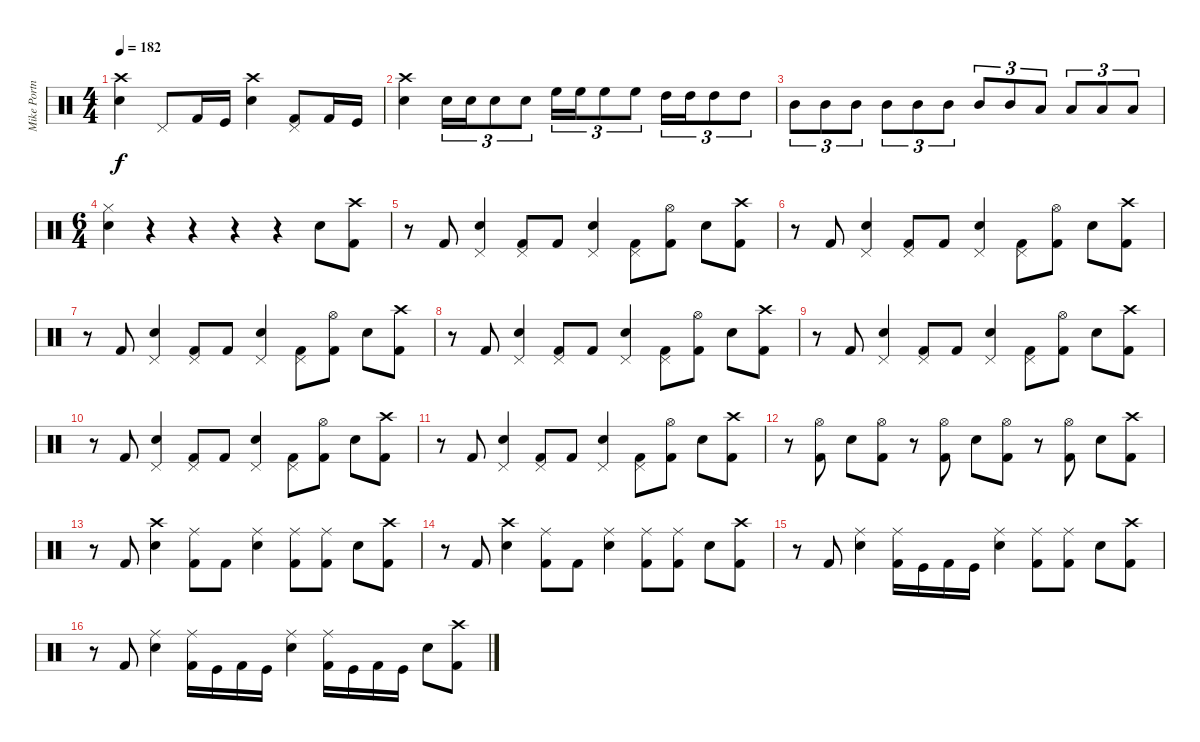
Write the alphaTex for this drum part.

\track ("Mike Portnoy" "Mike Portn") {instrument percussion}
\staff {score}
\articulation defaults
\ts (4 4)
\tempo 182
\clef neutral
\ks c
("Crash high (hit)" "Electric Snare (hit)").4{dy f} "Pedal Hi-Hat (hit)".8 "Kick (hit) 2".16 "Kick (hit)".16 ("Crash high (hit)" "Electric Snare (hit)").4 ("Pedal Hi-Hat (hit)" "Kick (hit) 2").8 "Kick (hit) 2".16 "Kick (hit)".16 |
("Crash high (hit)" "Electric Snare (hit)").4 "Electric Snare (hit)".16{tu (3 2)} "Electric Snare (hit)".16{tu (3 2)} "Electric Snare (hit)".8{tu (3 2)} "Electric Snare (hit)".8{tu (3 2)} "High Floor Tom (hit)".16{tu (3 2)} "High Floor Tom (hit)".16{tu (3 2)} "High Floor Tom (hit)".8{tu (3 2)} "High Floor Tom (hit)".8{tu (3 2)} "High Tom (hit)".16{tu (3 2)} "High Tom (hit)".16{tu (3 2)} "High Tom (hit)".8{tu (3 2)} "High Tom (hit)".8{tu (3 2)} |
"Mid Tom (hit)".8{tu (3 2)} "Mid Tom (hit)".8{tu (3 2)} "Mid Tom (hit)".8{tu (3 2)} "Mid Tom (hit)".8{tu (3 2)} "Mid Tom (hit)".8{tu (3 2)} "Mid Tom (hit)".8{tu (3 2)} "Mid Tom (hit)".8{tu (3 2)} "Mid Tom (hit)".8{tu (3 2)} "Low Floor Tom (hit)".8{tu (3 2)} "Low Floor Tom (hit)".8{tu (3 2)} "Low Floor Tom (hit)".8{tu (3 2)} "Low Floor Tom (hit)".8{tu (3 2)} |
\ts (6 4)
("Hi-Hat (closed)" "Electric Snare (hit)").4 r.4 r.4 r.4 r.4 "Electric Snare (hit)".8 ("Crash high (hit)" "Kick (hit) 2").8 |
r.8 "Kick (hit) 2".8 ("Pedal Hi-Hat (hit)" "Electric Snare (hit)").4 ("Pedal Hi-Hat (hit)" "Kick (hit) 2").8 "Kick (hit) 2".8 ("Pedal Hi-Hat (hit)" "Electric Snare (hit)").4 ("Pedal Hi-Hat (hit)" "Kick (hit) 2").8 ("Hi-Hat (open)" "Kick (hit) 2").8 "Electric Snare (hit)".8 ("Crash high (hit)" "Kick (hit) 2").8 |
r.8 "Kick (hit) 2".8 ("Pedal Hi-Hat (hit)" "Electric Snare (hit)").4 ("Pedal Hi-Hat (hit)" "Kick (hit) 2").8 "Kick (hit) 2".8 ("Pedal Hi-Hat (hit)" "Electric Snare (hit)").4 ("Pedal Hi-Hat (hit)" "Kick (hit) 2").8 ("Hi-Hat (open)" "Kick (hit) 2").8 "Electric Snare (hit)".8 ("Crash high (hit)" "Kick (hit) 2").8 |
r.8 "Kick (hit) 2".8 ("Pedal Hi-Hat (hit)" "Electric Snare (hit)").4 ("Pedal Hi-Hat (hit)" "Kick (hit) 2").8 "Kick (hit) 2".8 ("Pedal Hi-Hat (hit)" "Electric Snare (hit)").4 ("Pedal Hi-Hat (hit)" "Kick (hit) 2").8 ("Hi-Hat (open)" "Kick (hit) 2").8 "Electric Snare (hit)".8 ("Crash high (hit)" "Kick (hit) 2").8 |
r.8 "Kick (hit) 2".8 ("Pedal Hi-Hat (hit)" "Electric Snare (hit)").4 ("Pedal Hi-Hat (hit)" "Kick (hit) 2").8 "Kick (hit) 2".8 ("Pedal Hi-Hat (hit)" "Electric Snare (hit)").4 ("Pedal Hi-Hat (hit)" "Kick (hit) 2").8 ("Hi-Hat (open)" "Kick (hit) 2").8 "Electric Snare (hit)".8 ("Crash high (hit)" "Kick (hit) 2").8 |
r.8 "Kick (hit) 2".8 ("Pedal Hi-Hat (hit)" "Electric Snare (hit)").4 ("Pedal Hi-Hat (hit)" "Kick (hit) 2").8 "Kick (hit) 2".8 ("Pedal Hi-Hat (hit)" "Electric Snare (hit)").4 ("Pedal Hi-Hat (hit)" "Kick (hit) 2").8 ("Hi-Hat (open)" "Kick (hit) 2").8 "Electric Snare (hit)".8 ("Crash high (hit)" "Kick (hit) 2").8 |
r.8 "Kick (hit) 2".8 ("Pedal Hi-Hat (hit)" "Electric Snare (hit)").4 ("Pedal Hi-Hat (hit)" "Kick (hit) 2").8 "Kick (hit) 2".8 ("Pedal Hi-Hat (hit)" "Electric Snare (hit)").4 ("Pedal Hi-Hat (hit)" "Kick (hit) 2").8 ("Hi-Hat (open)" "Kick (hit) 2").8 "Electric Snare (hit)".8 ("Crash high (hit)" "Kick (hit) 2").8 |
r.8 "Kick (hit) 2".8 ("Pedal Hi-Hat (hit)" "Electric Snare (hit)").4 ("Pedal Hi-Hat (hit)" "Kick (hit) 2").8 "Kick (hit) 2".8 ("Pedal Hi-Hat (hit)" "Electric Snare (hit)").4 ("Pedal Hi-Hat (hit)" "Kick (hit) 2").8 ("Hi-Hat (open)" "Kick (hit) 2").8 "Electric Snare (hit)".8 ("Crash high (hit)" "Kick (hit) 2").8 |
r.8 ("Hi-Hat (open)" "Kick (hit) 2").8 "Electric Snare (hit)".8 ("Hi-Hat (open)" "Kick (hit) 2").8 r.8 ("Hi-Hat (open)" "Kick (hit) 2").8 "Electric Snare (hit)".8 ("Hi-Hat (open)" "Kick (hit) 2").8 r.8 ("Hi-Hat (open)" "Kick (hit) 2").8 "Electric Snare (hit)".8 ("Crash high (hit)" "Kick (hit) 2").8 |
r.8 "Kick (hit) 2".8 ("Crash high (hit)" "Electric Snare (hit)").4 ("Ride (middle)" "Kick (hit) 2").8 "Kick (hit) 2".8 ("Ride (middle)" "Electric Snare (hit)").4 ("Ride (middle)" "Kick (hit) 2").8 ("Ride (middle)" "Kick (hit) 2").8 "Electric Snare (hit)".8 ("Crash high (hit)" "Kick (hit) 2").8 |
r.8 "Kick (hit) 2".8 ("Crash high (hit)" "Electric Snare (hit)").4 ("Ride (middle)" "Kick (hit) 2").8 "Kick (hit) 2".8 ("Ride (middle)" "Electric Snare (hit)").4 ("Ride (middle)" "Kick (hit) 2").8 ("Ride (middle)" "Kick (hit) 2").8 "Electric Snare (hit)".8 ("Crash high (hit)" "Kick (hit) 2").8 |
r.8 "Kick (hit) 2".8 ("Ride (middle)" "Electric Snare (hit)").4 ("Ride (middle)" "Kick (hit) 2").16 "Kick (hit)".16 "Kick (hit) 2".16 "Kick (hit)".16 ("Ride (middle)" "Electric Snare (hit)").4 ("Ride (middle)" "Kick (hit) 2").8 ("Ride (middle)" "Kick (hit) 2").8 "Electric Snare (hit)".8 ("Crash high (hit)" "Kick (hit) 2").8 |
r.8 "Kick (hit) 2".8 ("Ride (middle)" "Electric Snare (hit)").4 ("Ride (middle)" "Kick (hit) 2").16 "Kick (hit)".16 "Kick (hit) 2".16 "Kick (hit)".16 ("Ride (middle)" "Electric Snare (hit)").4 ("Ride (middle)" "Kick (hit) 2").16 "Kick (hit)".16 "Kick (hit) 2".16 "Kick (hit)".16 "Electric Snare (hit)".8 ("Crash high (hit)" "Kick (hit) 2").8
